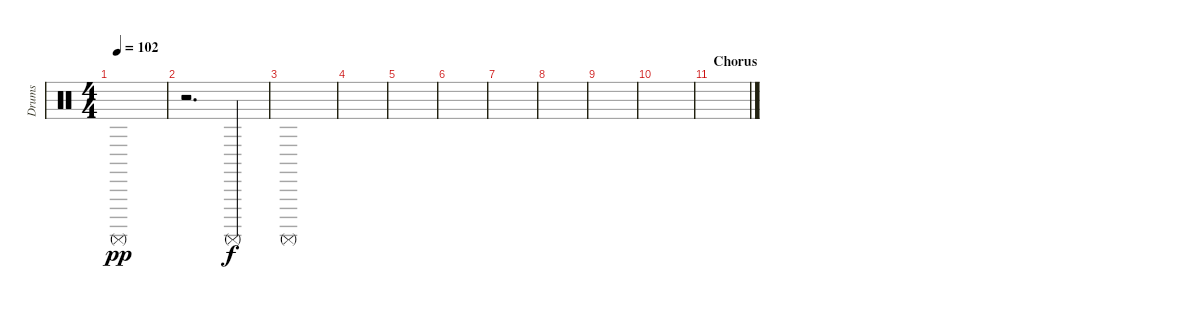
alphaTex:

\track ("Drums" "Drums") {instrument percussion}
\staff {score}
\articulation defaults
\ts (4 4)
\tempo 102
\clef neutral
\ks c "Surdo (mute)".1{dy pp}
|
r.2{d} "Surdo (mute)".4{dy f} |
"Surdo (mute)".1 |
|
|
|
|
|
|
|
\section ("" "Chorus")
